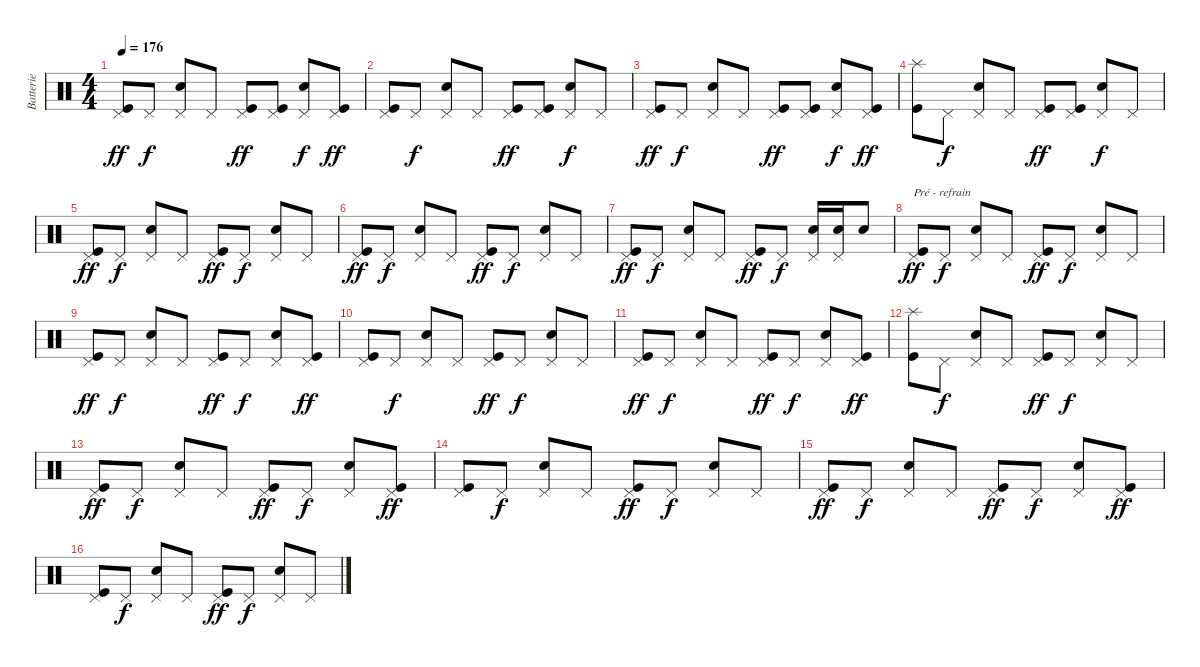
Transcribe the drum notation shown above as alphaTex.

\track ("Batterie" "Batterie") {instrument percussion}
\staff {score}
\articulation defaults
\ts (4 4)
\tempo 176
\clef neutral
\ks c
("Pedal Hi-Hat (hit)" "Kick (hit)").8{dy ff} "Pedal Hi-Hat (hit)".8{dy f} ("Pedal Hi-Hat (hit)" "Snare (hit) 2").8 "Pedal Hi-Hat (hit)".8 ("Pedal Hi-Hat (hit)" "Kick (hit)").8{dy ff} ("Pedal Hi-Hat (hit)" "Kick (hit)").8 ("Pedal Hi-Hat (hit)" "Snare (hit) 2").8{dy f} ("Pedal Hi-Hat (hit)" "Kick (hit)").8{dy ff} |
("Pedal Hi-Hat (hit)" "Kick (hit)").8 "Pedal Hi-Hat (hit)".8{dy f} ("Pedal Hi-Hat (hit)" "Snare (hit) 2").8 "Pedal Hi-Hat (hit)".8 ("Pedal Hi-Hat (hit)" "Kick (hit)").8{dy ff} ("Pedal Hi-Hat (hit)" "Kick (hit)").8 ("Pedal Hi-Hat (hit)" "Snare (hit) 2").8{dy f} "Pedal Hi-Hat (hit)".8 |
("Pedal Hi-Hat (hit)" "Kick (hit)").8{dy ff} "Pedal Hi-Hat (hit)".8{dy f} ("Pedal Hi-Hat (hit)" "Snare (hit) 2").8 "Pedal Hi-Hat (hit)".8 ("Pedal Hi-Hat (hit)" "Kick (hit)").8{dy ff} ("Pedal Hi-Hat (hit)" "Kick (hit)").8 ("Pedal Hi-Hat (hit)" "Snare (hit) 2").8{dy f} ("Pedal Hi-Hat (hit)" "Kick (hit)").8{dy ff} |
("Splash (hit)" "Kick (hit)").8 "Pedal Hi-Hat (hit)".8{dy f} ("Pedal Hi-Hat (hit)" "Snare (hit) 2").8 "Pedal Hi-Hat (hit)".8 ("Pedal Hi-Hat (hit)" "Kick (hit)").8{dy ff} ("Pedal Hi-Hat (hit)" "Kick (hit)").8 ("Pedal Hi-Hat (hit)" "Snare (hit) 2").8{dy f} "Pedal Hi-Hat (hit)".8 |
("Pedal Hi-Hat (hit)" "Kick (hit)").8{dy ff} "Pedal Hi-Hat (hit)".8{dy f} ("Pedal Hi-Hat (hit)" "Snare (hit) 2").8 "Pedal Hi-Hat (hit)".8 ("Pedal Hi-Hat (hit)" "Kick (hit)").8{dy ff} "Pedal Hi-Hat (hit)".8{dy f} ("Pedal Hi-Hat (hit)" "Snare (hit) 2").8 "Pedal Hi-Hat (hit)".8 |
("Pedal Hi-Hat (hit)" "Kick (hit)").8{dy ff} "Pedal Hi-Hat (hit)".8{dy f} ("Pedal Hi-Hat (hit)" "Snare (hit) 2").8 "Pedal Hi-Hat (hit)".8 ("Pedal Hi-Hat (hit)" "Kick (hit)").8{dy ff} "Pedal Hi-Hat (hit)".8{dy f} ("Pedal Hi-Hat (hit)" "Snare (hit) 2").8 "Pedal Hi-Hat (hit)".8 |
("Pedal Hi-Hat (hit)" "Kick (hit)").8{dy ff} "Pedal Hi-Hat (hit)".8{dy f} ("Pedal Hi-Hat (hit)" "Snare (hit) 2").8 "Pedal Hi-Hat (hit)".8 ("Pedal Hi-Hat (hit)" "Kick (hit)").8{dy ff} "Pedal Hi-Hat (hit)".8{dy f} ("Pedal Hi-Hat (hit)" "Snare (hit) 2").16 ("Pedal Hi-Hat (hit)" "Snare (hit) 2").16 "Snare (hit) 2".8 |
("Pedal Hi-Hat (hit)" "Kick (hit)").8{txt "Pré - refrain" dy ff} "Pedal Hi-Hat (hit)".8{dy f} ("Pedal Hi-Hat (hit)" "Snare (hit) 2").8 "Pedal Hi-Hat (hit)".8 ("Pedal Hi-Hat (hit)" "Kick (hit)").8{dy ff} "Pedal Hi-Hat (hit)".8{dy f} ("Pedal Hi-Hat (hit)" "Snare (hit) 2").8 "Pedal Hi-Hat (hit)".8 |
("Pedal Hi-Hat (hit)" "Kick (hit)").8{dy ff} "Pedal Hi-Hat (hit)".8{dy f} ("Pedal Hi-Hat (hit)" "Snare (hit) 2").8 "Pedal Hi-Hat (hit)".8 ("Pedal Hi-Hat (hit)" "Kick (hit)").8{dy ff} "Pedal Hi-Hat (hit)".8{dy f} ("Pedal Hi-Hat (hit)" "Snare (hit) 2").8 ("Pedal Hi-Hat (hit)" "Kick (hit)").8{dy ff} |
("Pedal Hi-Hat (hit)" "Kick (hit)").8 "Pedal Hi-Hat (hit)".8{dy f} ("Pedal Hi-Hat (hit)" "Snare (hit) 2").8 "Pedal Hi-Hat (hit)".8 ("Pedal Hi-Hat (hit)" "Kick (hit)").8{dy ff} "Pedal Hi-Hat (hit)".8{dy f} ("Pedal Hi-Hat (hit)" "Snare (hit) 2").8 "Pedal Hi-Hat (hit)".8 |
("Pedal Hi-Hat (hit)" "Kick (hit)").8{dy ff} "Pedal Hi-Hat (hit)".8{dy f} ("Pedal Hi-Hat (hit)" "Snare (hit) 2").8 "Pedal Hi-Hat (hit)".8 ("Pedal Hi-Hat (hit)" "Kick (hit)").8{dy ff} "Pedal Hi-Hat (hit)".8{dy f} ("Pedal Hi-Hat (hit)" "Snare (hit) 2").8 ("Pedal Hi-Hat (hit)" "Kick (hit)").8{dy ff} |
("Splash (hit)" "Kick (hit)").8 "Pedal Hi-Hat (hit)".8{dy f} ("Pedal Hi-Hat (hit)" "Snare (hit) 2").8 "Pedal Hi-Hat (hit)".8 ("Pedal Hi-Hat (hit)" "Kick (hit)").8{dy ff} "Pedal Hi-Hat (hit)".8{dy f} ("Pedal Hi-Hat (hit)" "Snare (hit) 2").8 "Pedal Hi-Hat (hit)".8 |
("Pedal Hi-Hat (hit)" "Kick (hit)").8{dy ff} "Pedal Hi-Hat (hit)".8{dy f} ("Pedal Hi-Hat (hit)" "Snare (hit) 2").8 "Pedal Hi-Hat (hit)".8 ("Pedal Hi-Hat (hit)" "Kick (hit)").8{dy ff} "Pedal Hi-Hat (hit)".8{dy f} ("Pedal Hi-Hat (hit)" "Snare (hit) 2").8 ("Pedal Hi-Hat (hit)" "Kick (hit)").8{dy ff} |
("Pedal Hi-Hat (hit)" "Kick (hit)").8 "Pedal Hi-Hat (hit)".8{dy f} ("Pedal Hi-Hat (hit)" "Snare (hit) 2").8 "Pedal Hi-Hat (hit)".8 ("Pedal Hi-Hat (hit)" "Kick (hit)").8{dy ff} "Pedal Hi-Hat (hit)".8{dy f} ("Pedal Hi-Hat (hit)" "Snare (hit) 2").8 "Pedal Hi-Hat (hit)".8 |
("Pedal Hi-Hat (hit)" "Kick (hit)").8{dy ff} "Pedal Hi-Hat (hit)".8{dy f} ("Pedal Hi-Hat (hit)" "Snare (hit) 2").8 "Pedal Hi-Hat (hit)".8 ("Pedal Hi-Hat (hit)" "Kick (hit)").8{dy ff} "Pedal Hi-Hat (hit)".8{dy f} ("Pedal Hi-Hat (hit)" "Snare (hit) 2").8 ("Pedal Hi-Hat (hit)" "Kick (hit)").8{dy ff} |
("Pedal Hi-Hat (hit)" "Kick (hit)").8 "Pedal Hi-Hat (hit)".8{dy f} ("Pedal Hi-Hat (hit)" "Snare (hit) 2").8 "Pedal Hi-Hat (hit)".8 ("Pedal Hi-Hat (hit)" "Kick (hit)").8{dy ff} "Pedal Hi-Hat (hit)".8{dy f} ("Pedal Hi-Hat (hit)" "Snare (hit) 2").8 "Pedal Hi-Hat (hit)".8
